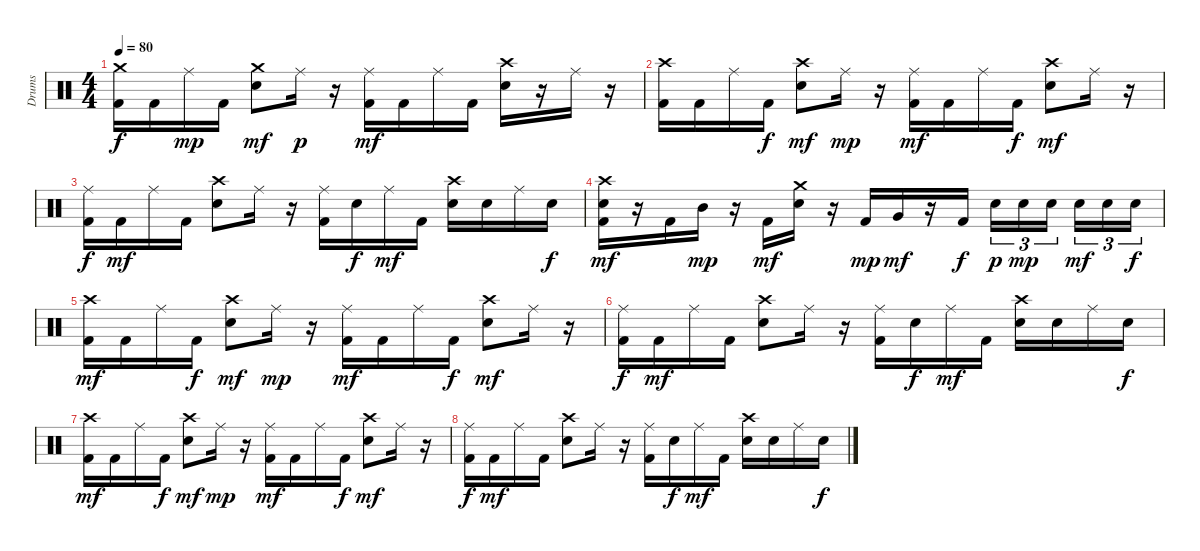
\track ("Drums" "Drums") {instrument percussion}
\staff {score}
\articulation defaults
\ts (4 4)
\tempo 80
\clef neutral
\ks c
("Kick (hit) 2" "Crash medium (hit)").16{dy f} "Kick (hit) 2".16 "Ride (middle)".16{dy mp} "Kick (hit) 2".16 ("Snare (hit) 2" "Crash medium (hit)").8{dy mf} "Ride (middle)".16{dy p} r.16 ("Kick (hit) 2" "Ride (middle)").16{dy mf} "Kick (hit) 2".16 "Ride (middle)".16 "Kick (hit) 2".16 ("Snare (hit) 2" "Crash high (hit)").16 r.16 "Ride (middle)".16 r.16 |
("Kick (hit) 2" "Crash high (hit)").16 "Kick (hit) 2".16 "Ride (middle)".16 "Kick (hit) 2".16{dy f} ("Snare (hit) 2" "Crash high (hit)").8{dy mf} "Ride (middle)".16{dy mp} r.16 ("Kick (hit) 2" "Ride (middle)").16{dy mf} "Kick (hit) 2".16 "Ride (middle)".16 "Kick (hit) 2".16{dy f} ("Snare (hit) 2" "Crash high (hit)").8{dy mf} "Ride (middle)".16 r.16 |
("Kick (hit) 2" "Ride (middle)").16{dy f} "Kick (hit) 2".16{dy mf} "Ride (middle)".16 "Kick (hit) 2".16 ("Snare (hit) 2" "Crash high (hit)").8 "Ride (middle)".16 r.16 ("Kick (hit) 2" "Ride (middle)").16 "Snare (hit) 2".16{dy f} "Ride (middle)".16{dy mf} "Kick (hit) 2".16 ("Snare (hit) 2" "Crash high (hit)").16 "Snare (hit) 2".16 "Ride (middle)".16 "Snare (hit) 2".16{dy f} |
("Kick (hit) 2" "Snare (hit) 2" "Crash high (hit)").16{dy mf} r.16 "Kick (hit) 2".16 "Mid Tom (hit)".16{dy mp} r.16 "Kick (hit) 2".16{dy mf} ("Snare (hit) 2" "Crash medium (hit)").16 r.16 "Kick (hit) 2".16{dy mp} "Very Low Tom (hit)".16{dy mf} r.16 "Kick (hit) 2".16{dy f} "Snare (hit) 2".16{tu (3 2) dy p} "Snare (hit) 2".16{tu (3 2) dy mp} "Snare (hit) 2".16{tu (3 2) beam splitsecondary} "Snare (hit) 2".16{tu (3 2) dy mf} "Snare (hit) 2".16{tu (3 2)} "Snare (hit) 2".16{tu (3 2) dy f} |
("Kick (hit) 2" "Crash high (hit)").16{dy mf} "Kick (hit) 2".16 "Ride (middle)".16 "Kick (hit) 2".16{dy f} ("Snare (hit) 2" "Crash high (hit)").8{dy mf} "Ride (middle)".16{dy mp} r.16 ("Kick (hit) 2" "Ride (middle)").16{dy mf} "Kick (hit) 2".16 "Ride (middle)".16 "Kick (hit) 2".16{dy f} ("Snare (hit) 2" "Crash high (hit)").8{dy mf} "Ride (middle)".16 r.16 |
("Kick (hit) 2" "Ride (middle)").16{dy f} "Kick (hit) 2".16{dy mf} "Ride (middle)".16 "Kick (hit) 2".16 ("Snare (hit) 2" "Crash high (hit)").8 "Ride (middle)".16 r.16 ("Kick (hit) 2" "Ride (middle)").16 "Snare (hit) 2".16{dy f} "Ride (middle)".16{dy mf} "Kick (hit) 2".16 ("Snare (hit) 2" "Crash high (hit)").16 "Snare (hit) 2".16 "Ride (middle)".16 "Snare (hit) 2".16{dy f} |
("Kick (hit) 2" "Crash high (hit)").16{dy mf} "Kick (hit) 2".16 "Ride (middle)".16 "Kick (hit) 2".16{dy f} ("Snare (hit) 2" "Crash high (hit)").8{dy mf} "Ride (middle)".16{dy mp} r.16 ("Kick (hit) 2" "Ride (middle)").16{dy mf} "Kick (hit) 2".16 "Ride (middle)".16 "Kick (hit) 2".16{dy f} ("Snare (hit) 2" "Crash high (hit)").8{dy mf} "Ride (middle)".16 r.16 |
("Kick (hit) 2" "Ride (middle)").16{dy f} "Kick (hit) 2".16{dy mf} "Ride (middle)".16 "Kick (hit) 2".16 ("Snare (hit) 2" "Crash high (hit)").8 "Ride (middle)".16 r.16 ("Kick (hit) 2" "Ride (middle)").16 "Snare (hit) 2".16{dy f} "Ride (middle)".16{dy mf} "Kick (hit) 2".16 ("Snare (hit) 2" "Crash high (hit)").16 "Snare (hit) 2".16 "Ride (middle)".16 "Snare (hit) 2".16{dy f}
